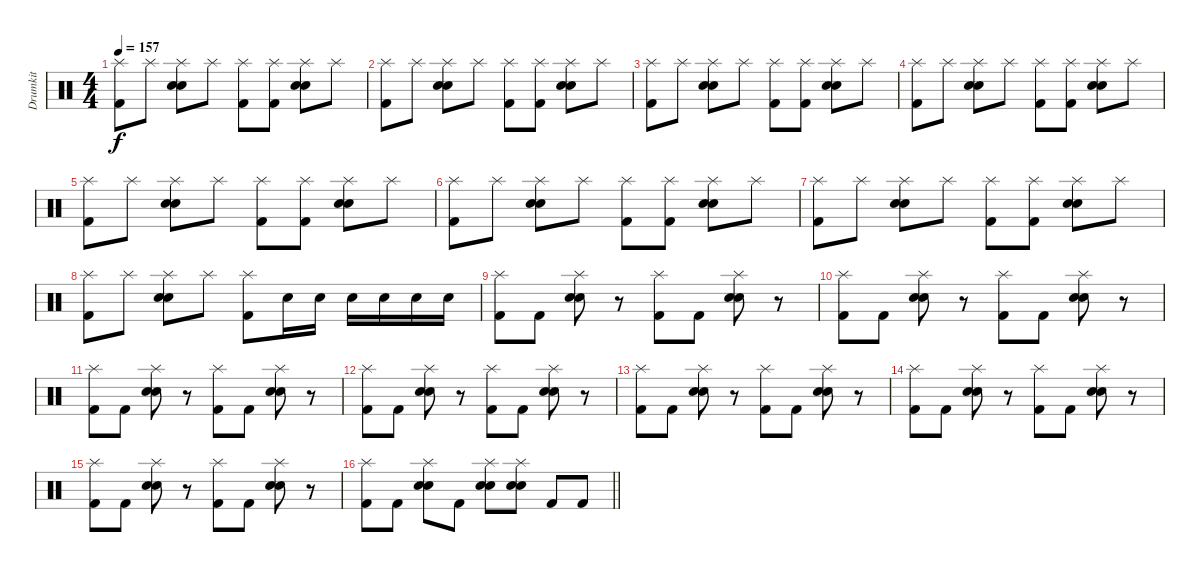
\track ("Drumkit" "Drumkit") {instrument percussion}
\staff {score}
\articulation defaults
\ts (4 4)
\tempo 157
\clef neutral
\ks c
("Splash (hit)" "Kick (hit) 2").8{dy f} "Splash (hit)".8 ("Splash (hit)" "Electric Snare (hit)" "Snare (hit) 2").8 "Splash (hit)".8 ("Splash (hit)" "Kick (hit) 2").8 ("Splash (hit)" "Kick (hit) 2").8 ("Splash (hit)" "Electric Snare (hit)" "Snare (hit) 2").8 "Splash (hit)".8 |
("Splash (hit)" "Kick (hit) 2").8 "Splash (hit)".8 ("Splash (hit)" "Electric Snare (hit)" "Snare (hit) 2").8 "Splash (hit)".8 ("Splash (hit)" "Kick (hit) 2").8 ("Splash (hit)" "Kick (hit) 2").8 ("Splash (hit)" "Electric Snare (hit)" "Snare (hit) 2").8 "Splash (hit)".8 |
("Splash (hit)" "Kick (hit) 2").8 "Splash (hit)".8 ("Splash (hit)" "Electric Snare (hit)" "Snare (hit) 2").8 "Splash (hit)".8 ("Splash (hit)" "Kick (hit) 2").8 ("Splash (hit)" "Kick (hit) 2").8 ("Splash (hit)" "Electric Snare (hit)" "Snare (hit) 2").8 "Splash (hit)".8 |
("Splash (hit)" "Kick (hit) 2").8 "Splash (hit)".8 ("Splash (hit)" "Electric Snare (hit)" "Snare (hit) 2").8 "Splash (hit)".8 ("Splash (hit)" "Kick (hit) 2").8 ("Splash (hit)" "Kick (hit) 2").8 ("Splash (hit)" "Electric Snare (hit)" "Snare (hit) 2").8 "Splash (hit)".8 |
("Splash (hit)" "Kick (hit) 2").8 "Splash (hit)".8 ("Splash (hit)" "Electric Snare (hit)" "Snare (hit) 2").8 "Splash (hit)".8 ("Splash (hit)" "Kick (hit) 2").8 ("Splash (hit)" "Kick (hit) 2").8 ("Splash (hit)" "Electric Snare (hit)" "Snare (hit) 2").8 "Splash (hit)".8 |
("Splash (hit)" "Kick (hit) 2").8 "Splash (hit)".8 ("Splash (hit)" "Electric Snare (hit)" "Snare (hit) 2").8 "Splash (hit)".8 ("Splash (hit)" "Kick (hit) 2").8 ("Splash (hit)" "Kick (hit) 2").8 ("Splash (hit)" "Electric Snare (hit)" "Snare (hit) 2").8 "Splash (hit)".8 |
("Splash (hit)" "Kick (hit) 2").8 "Splash (hit)".8 ("Splash (hit)" "Electric Snare (hit)" "Snare (hit) 2").8 "Splash (hit)".8 ("Splash (hit)" "Kick (hit) 2").8 ("Splash (hit)" "Kick (hit) 2").8 ("Splash (hit)" "Electric Snare (hit)" "Snare (hit) 2").8 "Splash (hit)".8 |
("Splash (hit)" "Kick (hit) 2").8 "Splash (hit)".8 ("Splash (hit)" "Electric Snare (hit)" "Snare (hit) 2").8 "Splash (hit)".8 ("Splash (hit)" "Kick (hit) 2").8 "Electric Snare (hit)".16 "Electric Snare (hit)".16 "Electric Snare (hit)".16 "Electric Snare (hit)".16 "Electric Snare (hit)".16 "Electric Snare (hit)".16 |
("Splash (hit)" "Kick (hit) 2").8 "Kick (hit) 2".8 ("Splash (hit)" "Electric Snare (hit)" "Snare (hit) 2").8 r.8 ("Splash (hit)" "Kick (hit) 2").8 "Kick (hit) 2".8 ("Splash (hit)" "Electric Snare (hit)" "Snare (hit) 2").8 r.8 |
("Splash (hit)" "Kick (hit) 2").8 "Kick (hit) 2".8 ("Splash (hit)" "Electric Snare (hit)" "Snare (hit) 2").8 r.8 ("Splash (hit)" "Kick (hit) 2").8 "Kick (hit) 2".8 ("Splash (hit)" "Electric Snare (hit)" "Snare (hit) 2").8 r.8 |
("Splash (hit)" "Kick (hit) 2").8 "Kick (hit) 2".8 ("Splash (hit)" "Electric Snare (hit)" "Snare (hit) 2").8 r.8 ("Splash (hit)" "Kick (hit) 2").8 "Kick (hit) 2".8 ("Splash (hit)" "Electric Snare (hit)" "Snare (hit) 2").8 r.8 |
("Splash (hit)" "Kick (hit) 2").8 "Kick (hit) 2".8 ("Splash (hit)" "Electric Snare (hit)" "Snare (hit) 2").8 r.8 ("Splash (hit)" "Kick (hit) 2").8 "Kick (hit) 2".8 ("Splash (hit)" "Electric Snare (hit)" "Snare (hit) 2").8 r.8 |
("Splash (hit)" "Kick (hit) 2").8 "Kick (hit) 2".8 ("Splash (hit)" "Electric Snare (hit)" "Snare (hit) 2").8 r.8 ("Splash (hit)" "Kick (hit) 2").8 "Kick (hit) 2".8 ("Splash (hit)" "Electric Snare (hit)" "Snare (hit) 2").8 r.8 |
("Splash (hit)" "Kick (hit) 2").8 "Kick (hit) 2".8 ("Splash (hit)" "Electric Snare (hit)" "Snare (hit) 2").8 r.8 ("Splash (hit)" "Kick (hit) 2").8 "Kick (hit) 2".8 ("Splash (hit)" "Electric Snare (hit)" "Snare (hit) 2").8 r.8 |
("Splash (hit)" "Kick (hit) 2").8 "Kick (hit) 2".8 ("Splash (hit)" "Electric Snare (hit)" "Snare (hit) 2").8 r.8 ("Splash (hit)" "Kick (hit) 2").8 "Kick (hit) 2".8 ("Splash (hit)" "Electric Snare (hit)" "Snare (hit) 2").8 r.8 |
\barLineRight lightlight
("Splash (hit)" "Kick (hit) 2").8 "Kick (hit) 2".8 ("Splash (hit)" "Electric Snare (hit)" "Snare (hit) 2").8 "Kick (hit) 2".8 ("Splash (hit)" "Electric Snare (hit)" "Snare (hit) 2").8 ("Splash (hit)" "Electric Snare (hit)" "Snare (hit) 2").8 "Kick (hit) 2".8 "Kick (hit) 2".8
